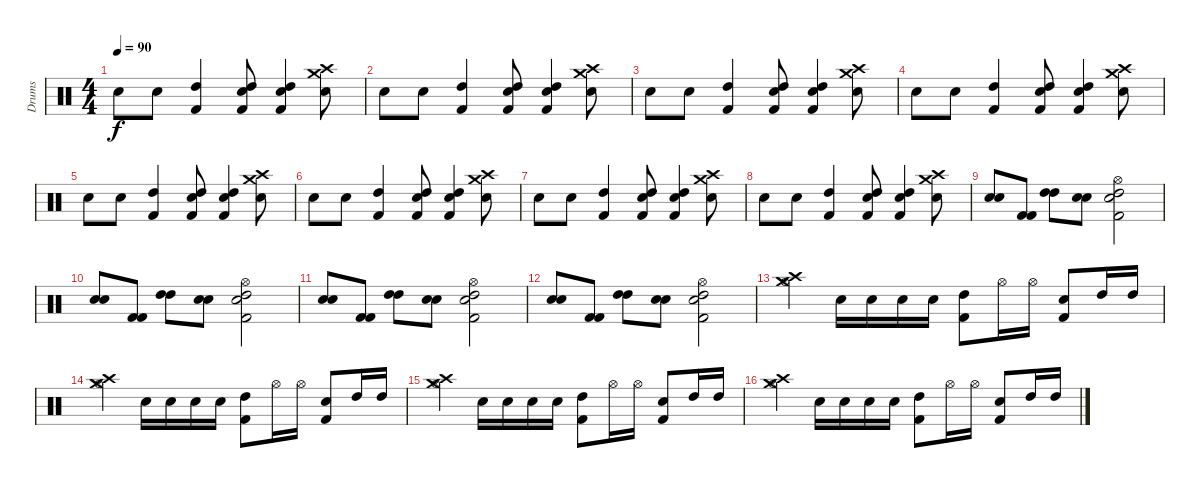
\track ("Drums" "Drums") {instrument percussion}
\staff {score}
\articulation defaults
\ts (4 4)
\tempo 90
\clef neutral
\ks c "Electric Snare (hit)".8{dy f} "Electric Snare (hit)".8
("High Tom (hit)" "Kick (hit) 2").4 ("High Tom (hit)" "Kick (hit) 2" "Electric Snare (hit)").8 ("Electric Snare (hit)" "Kick (hit) 2" "High Tom (hit)").4 ("Crash high (hit)" "Crash medium (hit)" "Electric Snare (hit)").8 |
"Electric Snare (hit)".8 "Electric Snare (hit)".8 ("High Tom (hit)" "Kick (hit) 2").4 ("High Tom (hit)" "Kick (hit) 2" "Electric Snare (hit)").8 ("Electric Snare (hit)" "Kick (hit) 2" "High Tom (hit)").4 ("Crash high (hit)" "Crash medium (hit)" "Electric Snare (hit)").8 |
"Electric Snare (hit)".8 "Electric Snare (hit)".8 ("High Tom (hit)" "Kick (hit) 2").4 ("High Tom (hit)" "Kick (hit) 2" "Electric Snare (hit)").8 ("Electric Snare (hit)" "Kick (hit) 2" "High Tom (hit)").4 ("Crash high (hit)" "Crash medium (hit)" "Electric Snare (hit)").8 |
"Electric Snare (hit)".8 "Electric Snare (hit)".8 ("High Tom (hit)" "Kick (hit) 2").4 ("High Tom (hit)" "Kick (hit) 2" "Electric Snare (hit)").8 ("Electric Snare (hit)" "Kick (hit) 2" "High Tom (hit)").4 ("Crash high (hit)" "Crash medium (hit)" "Electric Snare (hit)").8 |
"Electric Snare (hit)".8 "Electric Snare (hit)".8 ("High Tom (hit)" "Kick (hit) 2").4 ("High Tom (hit)" "Kick (hit) 2" "Electric Snare (hit)").8 ("Electric Snare (hit)" "Kick (hit) 2" "High Tom (hit)").4 ("Crash high (hit)" "Crash medium (hit)" "Electric Snare (hit)").8 |
"Electric Snare (hit)".8 "Electric Snare (hit)".8 ("High Tom (hit)" "Kick (hit) 2").4 ("High Tom (hit)" "Kick (hit) 2" "Electric Snare (hit)").8 ("Electric Snare (hit)" "Kick (hit) 2" "High Tom (hit)").4 ("Crash high (hit)" "Crash medium (hit)" "Electric Snare (hit)").8 |
"Electric Snare (hit)".8 "Electric Snare (hit)".8 ("High Tom (hit)" "Kick (hit) 2").4 ("High Tom (hit)" "Kick (hit) 2" "Electric Snare (hit)").8 ("Electric Snare (hit)" "Kick (hit) 2" "High Tom (hit)").4 ("Crash high (hit)" "Crash medium (hit)" "Electric Snare (hit)").8 |
"Electric Snare (hit)".8 "Electric Snare (hit)".8 ("High Tom (hit)" "Kick (hit) 2").4 ("High Tom (hit)" "Kick (hit) 2" "Electric Snare (hit)").8 ("Electric Snare (hit)" "Kick (hit) 2" "High Tom (hit)").4 ("Crash high (hit)" "Crash medium (hit)" "Electric Snare (hit)").8 |
("Electric Snare (hit)" "Electric Snare (hit)").8 ("Kick (hit) 2" "Kick (hit) 2").8 ("High Tom (hit)" "High Tom (hit)").8 ("Electric Snare (hit)" "Electric Snare (hit)").8 ("Electric Snare (hit)" "Kick (hit) 2" "High Tom (hit)" "Hi-Hat (open)").2 |
("Electric Snare (hit)" "Electric Snare (hit)").8 ("Kick (hit) 2" "Kick (hit) 2").8 ("High Tom (hit)" "High Tom (hit)").8 ("Electric Snare (hit)" "Electric Snare (hit)").8 ("Electric Snare (hit)" "Kick (hit) 2" "High Tom (hit)" "Hi-Hat (open)").2 |
("Electric Snare (hit)" "Electric Snare (hit)").8 ("Kick (hit) 2" "Kick (hit) 2").8 ("High Tom (hit)" "High Tom (hit)").8 ("Electric Snare (hit)" "Electric Snare (hit)").8 ("Electric Snare (hit)" "Kick (hit) 2" "High Tom (hit)" "Hi-Hat (open)").2 |
("Electric Snare (hit)" "Electric Snare (hit)").8 ("Kick (hit) 2" "Kick (hit) 2").8 ("High Tom (hit)" "High Tom (hit)").8 ("Electric Snare (hit)" "Electric Snare (hit)").8 ("Electric Snare (hit)" "Kick (hit) 2" "High Tom (hit)" "Hi-Hat (open)").2 |
("Hi-Hat (open)" "Crash high (hit)" "Crash medium (hit)").4 "Electric Snare (hit)".16 "Electric Snare (hit)".16 "Electric Snare (hit)".16 "Electric Snare (hit)".16 ("Kick (hit) 2" "High Tom (hit)").8 "Hi-Hat (open)".16 "Hi-Hat (open)".16 ("Electric Snare (hit)" "Kick (hit) 2").8 "High Tom (hit)".16 "High Tom (hit)".16 |
("Hi-Hat (open)" "Crash high (hit)" "Crash medium (hit)").4 "Electric Snare (hit)".16 "Electric Snare (hit)".16 "Electric Snare (hit)".16 "Electric Snare (hit)".16 ("Kick (hit) 2" "High Tom (hit)").8 "Hi-Hat (open)".16 "Hi-Hat (open)".16 ("Electric Snare (hit)" "Kick (hit) 2").8 "High Tom (hit)".16 "High Tom (hit)".16 |
("Hi-Hat (open)" "Crash high (hit)" "Crash medium (hit)").4 "Electric Snare (hit)".16 "Electric Snare (hit)".16 "Electric Snare (hit)".16 "Electric Snare (hit)".16 ("Kick (hit) 2" "High Tom (hit)").8 "Hi-Hat (open)".16 "Hi-Hat (open)".16 ("Electric Snare (hit)" "Kick (hit) 2").8 "High Tom (hit)".16 "High Tom (hit)".16 |
("Hi-Hat (open)" "Crash high (hit)" "Crash medium (hit)").4 "Electric Snare (hit)".16 "Electric Snare (hit)".16 "Electric Snare (hit)".16 "Electric Snare (hit)".16 ("Kick (hit) 2" "High Tom (hit)").8 "Hi-Hat (open)".16 "Hi-Hat (open)".16 ("Electric Snare (hit)" "Kick (hit) 2").8 "High Tom (hit)".16 "High Tom (hit)".16
